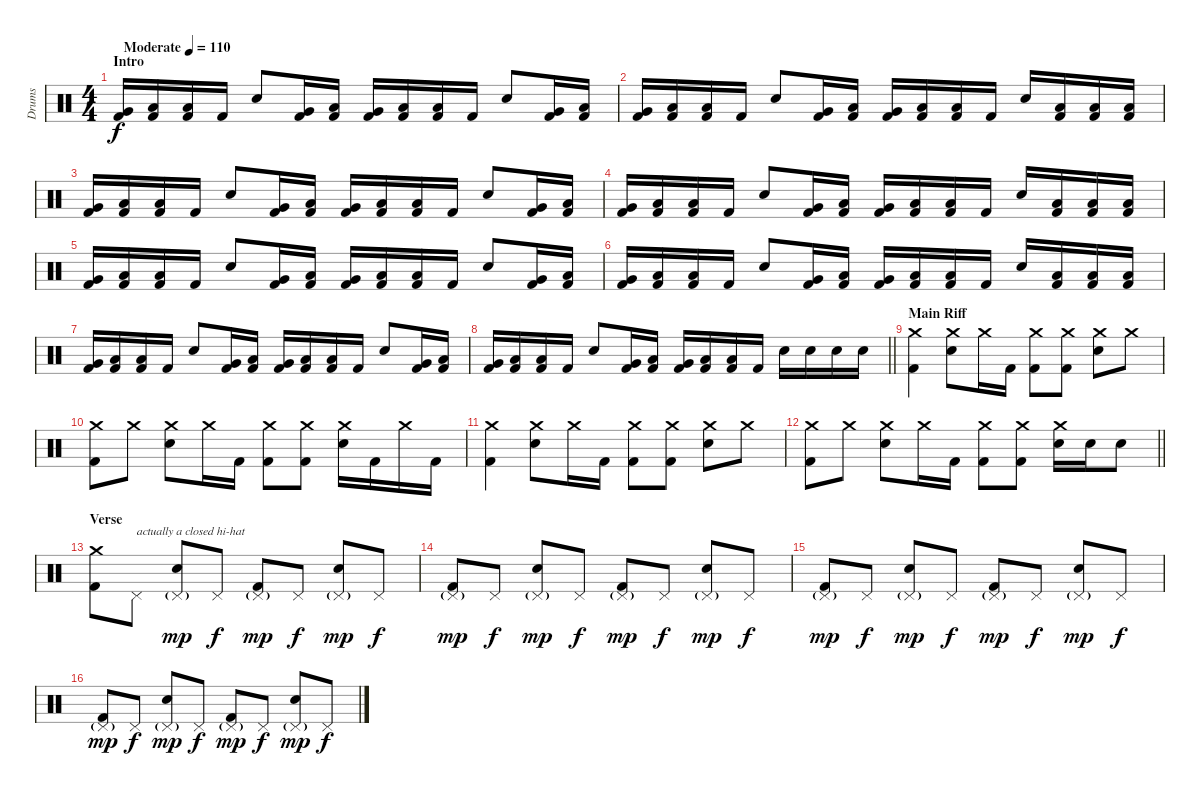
\track ("Drums" "Drums") {instrument percussion}
\staff {score}
\articulation defaults
\ts (4 4)
\section ("" "Intro")
\tempo (110 "Moderate")
\clef neutral
\ks c
("Very Low Tom (hit)" "Kick (hit) 2").16{dy f} ("Low Floor Tom (hit)" "Kick (hit) 2").16 ("Low Floor Tom (hit)" "Kick (hit) 2").16 "Kick (hit) 2".16 "Electric Snare (hit)".8 ("Very Low Tom (hit)" "Kick (hit) 2").16 ("Low Floor Tom (hit)" "Kick (hit) 2").16 ("Very Low Tom (hit)" "Kick (hit) 2").16 ("Low Floor Tom (hit)" "Kick (hit) 2").16 ("Low Floor Tom (hit)" "Kick (hit) 2").16 "Kick (hit) 2".16 "Electric Snare (hit)".8 ("Very Low Tom (hit)" "Kick (hit) 2").16 ("Low Floor Tom (hit)" "Kick (hit) 2").16 |
("Very Low Tom (hit)" "Kick (hit) 2").16 ("Low Floor Tom (hit)" "Kick (hit) 2").16 ("Low Floor Tom (hit)" "Kick (hit) 2").16 "Kick (hit) 2".16 "Electric Snare (hit)".8 ("Very Low Tom (hit)" "Kick (hit) 2").16 ("Low Floor Tom (hit)" "Kick (hit) 2").16 ("Very Low Tom (hit)" "Kick (hit) 2").16 ("Low Floor Tom (hit)" "Kick (hit) 2").16 ("Low Floor Tom (hit)" "Kick (hit) 2").16 "Kick (hit) 2".16 "Electric Snare (hit)".16 ("Low Floor Tom (hit)" "Kick (hit) 2").16 ("Low Floor Tom (hit)" "Kick (hit) 2").16 ("Low Floor Tom (hit)" "Kick (hit) 2").16 |
("Very Low Tom (hit)" "Kick (hit) 2").16 ("Low Floor Tom (hit)" "Kick (hit) 2").16 ("Low Floor Tom (hit)" "Kick (hit) 2").16 "Kick (hit) 2".16 "Electric Snare (hit)".8 ("Very Low Tom (hit)" "Kick (hit) 2").16 ("Low Floor Tom (hit)" "Kick (hit) 2").16 ("Very Low Tom (hit)" "Kick (hit) 2").16 ("Low Floor Tom (hit)" "Kick (hit) 2").16 ("Low Floor Tom (hit)" "Kick (hit) 2").16 "Kick (hit) 2".16 "Electric Snare (hit)".8 ("Very Low Tom (hit)" "Kick (hit) 2").16 ("Low Floor Tom (hit)" "Kick (hit) 2").16 |
("Very Low Tom (hit)" "Kick (hit) 2").16 ("Low Floor Tom (hit)" "Kick (hit) 2").16 ("Low Floor Tom (hit)" "Kick (hit) 2").16 "Kick (hit) 2".16 "Electric Snare (hit)".8 ("Very Low Tom (hit)" "Kick (hit) 2").16 ("Low Floor Tom (hit)" "Kick (hit) 2").16 ("Very Low Tom (hit)" "Kick (hit) 2").16 ("Low Floor Tom (hit)" "Kick (hit) 2").16 ("Low Floor Tom (hit)" "Kick (hit) 2").16 "Kick (hit) 2".16 "Electric Snare (hit)".16 ("Low Floor Tom (hit)" "Kick (hit) 2").16 ("Low Floor Tom (hit)" "Kick (hit) 2").16 ("Low Floor Tom (hit)" "Kick (hit) 2").16 |
("Very Low Tom (hit)" "Kick (hit) 2").16 ("Low Floor Tom (hit)" "Kick (hit) 2").16 ("Low Floor Tom (hit)" "Kick (hit) 2").16 "Kick (hit) 2".16 "Electric Snare (hit)".8 ("Very Low Tom (hit)" "Kick (hit) 2").16 ("Low Floor Tom (hit)" "Kick (hit) 2").16 ("Very Low Tom (hit)" "Kick (hit) 2").16 ("Low Floor Tom (hit)" "Kick (hit) 2").16 ("Low Floor Tom (hit)" "Kick (hit) 2").16 "Kick (hit) 2".16 "Electric Snare (hit)".8 ("Very Low Tom (hit)" "Kick (hit) 2").16 ("Low Floor Tom (hit)" "Kick (hit) 2").16 |
("Very Low Tom (hit)" "Kick (hit) 2").16 ("Low Floor Tom (hit)" "Kick (hit) 2").16 ("Low Floor Tom (hit)" "Kick (hit) 2").16 "Kick (hit) 2".16 "Electric Snare (hit)".8 ("Very Low Tom (hit)" "Kick (hit) 2").16 ("Low Floor Tom (hit)" "Kick (hit) 2").16 ("Very Low Tom (hit)" "Kick (hit) 2").16 ("Low Floor Tom (hit)" "Kick (hit) 2").16 ("Low Floor Tom (hit)" "Kick (hit) 2").16 "Kick (hit) 2".16 "Electric Snare (hit)".16 ("Low Floor Tom (hit)" "Kick (hit) 2").16 ("Low Floor Tom (hit)" "Kick (hit) 2").16 ("Low Floor Tom (hit)" "Kick (hit) 2").16 |
("Very Low Tom (hit)" "Kick (hit) 2").16 ("Low Floor Tom (hit)" "Kick (hit) 2").16 ("Low Floor Tom (hit)" "Kick (hit) 2").16 "Kick (hit) 2".16 "Electric Snare (hit)".8 ("Very Low Tom (hit)" "Kick (hit) 2").16 ("Low Floor Tom (hit)" "Kick (hit) 2").16 ("Very Low Tom (hit)" "Kick (hit) 2").16 ("Low Floor Tom (hit)" "Kick (hit) 2").16 ("Low Floor Tom (hit)" "Kick (hit) 2").16 "Kick (hit) 2".16 "Electric Snare (hit)".8 ("Very Low Tom (hit)" "Kick (hit) 2").16 ("Low Floor Tom (hit)" "Kick (hit) 2").16 |
\barLineRight lightlight
("Very Low Tom (hit)" "Kick (hit) 2").16 ("Low Floor Tom (hit)" "Kick (hit) 2").16 ("Low Floor Tom (hit)" "Kick (hit) 2").16 "Kick (hit) 2".16 "Electric Snare (hit)".8 ("Very Low Tom (hit)" "Kick (hit) 2").16 ("Low Floor Tom (hit)" "Kick (hit) 2").16 ("Very Low Tom (hit)" "Kick (hit) 2").16 ("Low Floor Tom (hit)" "Kick (hit) 2").16 ("Low Floor Tom (hit)" "Kick (hit) 2").16 "Kick (hit) 2".16 "Electric Snare (hit)".16 "Electric Snare (hit)".16 "Electric Snare (hit)".16 "Electric Snare (hit)".16 |
\section ("" "Main Riff")
("Crash medium (hit)" "Kick (hit) 2").4 ("Crash medium (hit)" "Electric Snare (hit)").8 "Crash medium (hit)".16 "Kick (hit) 2".16 ("Crash medium (hit)" "Kick (hit) 2").8 ("Crash medium (hit)" "Kick (hit) 2").8 ("Crash medium (hit)" "Electric Snare (hit)").8 "Crash medium (hit)".8 |
("Crash medium (hit)" "Kick (hit) 2").8 "Crash medium (hit)".8 ("Crash medium (hit)" "Electric Snare (hit)").8 "Crash medium (hit)".16 "Kick (hit) 2".16 ("Crash medium (hit)" "Kick (hit) 2").8 ("Crash medium (hit)" "Kick (hit) 2").8 ("Crash medium (hit)" "Electric Snare (hit)").16 "Kick (hit) 2".16 "Crash medium (hit)".16 "Kick (hit) 2".16 |
("Crash medium (hit)" "Kick (hit) 2").4 ("Crash medium (hit)" "Electric Snare (hit)").8 "Crash medium (hit)".16 "Kick (hit) 2".16 ("Crash medium (hit)" "Kick (hit) 2").8 ("Crash medium (hit)" "Kick (hit) 2").8 ("Crash medium (hit)" "Electric Snare (hit)").8 "Crash medium (hit)".8 |
\barLineRight lightlight
("Crash medium (hit)" "Kick (hit) 2").8 "Crash medium (hit)".8 ("Crash medium (hit)" "Electric Snare (hit)").8 "Crash medium (hit)".16 "Kick (hit) 2".16 ("Crash medium (hit)" "Kick (hit) 2").8 ("Crash medium (hit)" "Kick (hit) 2").8 ("Crash medium (hit)" "Electric Snare (hit)").16 "Electric Snare (hit)".16 "Electric Snare (hit)".8 |
\section ("" "Verse")
("Crash medium (hit)" "Kick (hit) 2").8 "Pedal Hi-Hat (hit)".8{txt "actually a closed hi-hat"} ("Pedal Hi-Hat (hit)"{g} "Electric Snare (hit)").8{dy mp} "Pedal Hi-Hat (hit)".8{dy f} ("Pedal Hi-Hat (hit)"{g} "Kick (hit) 2").8{dy mp} "Pedal Hi-Hat (hit)".8{dy f} ("Pedal Hi-Hat (hit)"{g} "Electric Snare (hit)").8{dy mp} "Pedal Hi-Hat (hit)".8{dy f} |
("Pedal Hi-Hat (hit)"{g} "Kick (hit) 2").8{dy mp} "Pedal Hi-Hat (hit)".8{dy f} ("Pedal Hi-Hat (hit)"{g} "Electric Snare (hit)").8{dy mp} "Pedal Hi-Hat (hit)".8{dy f} ("Pedal Hi-Hat (hit)"{g} "Kick (hit) 2").8{dy mp} "Pedal Hi-Hat (hit)".8{dy f} ("Pedal Hi-Hat (hit)"{g} "Electric Snare (hit)").8{dy mp} "Pedal Hi-Hat (hit)".8{dy f} |
("Pedal Hi-Hat (hit)"{g} "Kick (hit) 2").8{dy mp} "Pedal Hi-Hat (hit)".8{dy f} ("Pedal Hi-Hat (hit)"{g} "Electric Snare (hit)").8{dy mp} "Pedal Hi-Hat (hit)".8{dy f} ("Pedal Hi-Hat (hit)"{g} "Kick (hit) 2").8{dy mp} "Pedal Hi-Hat (hit)".8{dy f} ("Pedal Hi-Hat (hit)"{g} "Electric Snare (hit)").8{dy mp} "Pedal Hi-Hat (hit)".8{dy f} |
("Pedal Hi-Hat (hit)"{g} "Kick (hit) 2").8{dy mp} "Pedal Hi-Hat (hit)".8{dy f} ("Pedal Hi-Hat (hit)"{g} "Electric Snare (hit)").8{dy mp} "Pedal Hi-Hat (hit)".8{dy f} ("Pedal Hi-Hat (hit)"{g} "Kick (hit) 2").8{dy mp} "Pedal Hi-Hat (hit)".8{dy f} ("Pedal Hi-Hat (hit)"{g} "Electric Snare (hit)").8{dy mp} "Pedal Hi-Hat (hit)".8{dy f}
